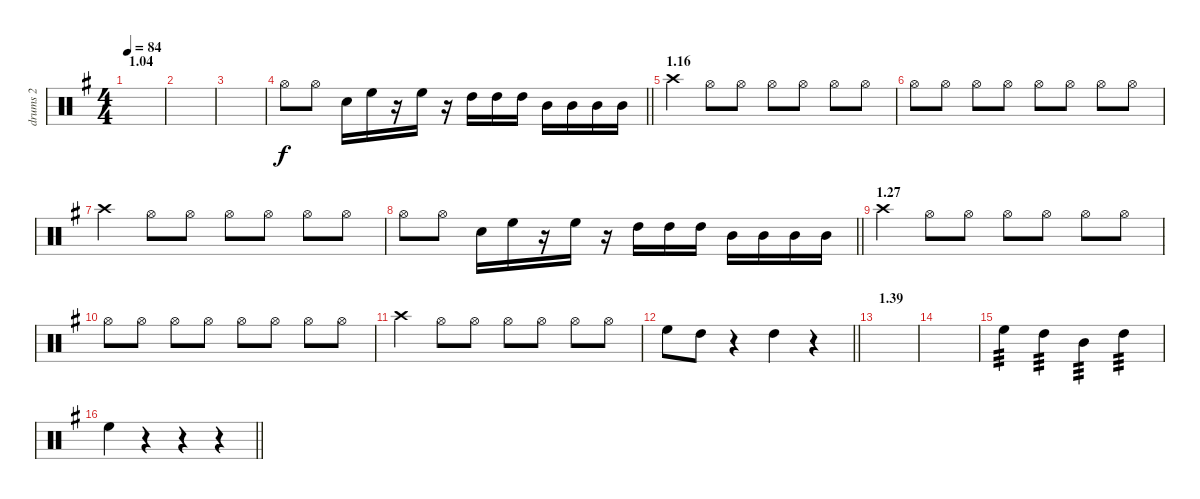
\track ("drums 2" "drums 2") {instrument percussion}
\staff {score}
\articulation defaults
\ts (4 4)
\section ("" "1.04")
\tempo 84
\clef neutral
\ks g
|
|
|
\barLineRight lightlight "Hi-Hat (open)".8 "Hi-Hat (open)".8 "Electric Snare (hit)".16 "High Floor Tom (hit)".16
r.16 "High Floor Tom (hit)".16 r.16 "High Tom (hit)".16 "High Tom (hit)".16 "High Tom (hit)".16 "Mid Tom (hit)".16 "Mid Tom (hit)".16 "Mid Tom (hit)".16 "Mid Tom (hit)".16 |
\section ("" "1.16")
"Crash high (hit)".4 "Hi-Hat (open)".8 "Hi-Hat (open)".8 "Hi-Hat (open)".8 "Hi-Hat (open)".8 "Hi-Hat (open)".8 "Hi-Hat (open)".8 |
"Hi-Hat (open)".8 "Hi-Hat (open)".8 "Hi-Hat (open)".8 "Hi-Hat (open)".8 "Hi-Hat (open)".8 "Hi-Hat (open)".8 "Hi-Hat (open)".8 "Hi-Hat (open)".8 |
"Crash high (hit)".4 "Hi-Hat (open)".8 "Hi-Hat (open)".8 "Hi-Hat (open)".8 "Hi-Hat (open)".8 "Hi-Hat (open)".8 "Hi-Hat (open)".8 |
\barLineRight lightlight "Hi-Hat (open)".8 "Hi-Hat (open)".8 "Electric Snare (hit)".16 "High Floor Tom (hit)".16
r.16 "High Floor Tom (hit)".16 r.16 "High Tom (hit)".16 "High Tom (hit)".16 "High Tom (hit)".16 "Mid Tom (hit)".16 "Mid Tom (hit)".16 "Mid Tom (hit)".16 "Mid Tom (hit)".16 |
\section ("" "1.27")
"Crash high (hit)".4 "Hi-Hat (open)".8 "Hi-Hat (open)".8 "Hi-Hat (open)".8 "Hi-Hat (open)".8 "Hi-Hat (open)".8 "Hi-Hat (open)".8 |
"Hi-Hat (open)".8 "Hi-Hat (open)".8 "Hi-Hat (open)".8 "Hi-Hat (open)".8 "Hi-Hat (open)".8 "Hi-Hat (open)".8 "Hi-Hat (open)".8 "Hi-Hat (open)".8 |
"Crash high (hit)".4 "Hi-Hat (open)".8 "Hi-Hat (open)".8 "Hi-Hat (open)".8 "Hi-Hat (open)".8 "Hi-Hat (open)".8 "Hi-Hat (open)".8 |
\barLineRight lightlight "High Floor Tom (hit)".8 "High Tom (hit)".8
r.4 "High Tom (hit)".4 r.4 |
\section ("" "1.39")
|
|
"High Floor Tom (hit)".4{tp 3} "High Tom (hit)".4{tp 3} "Mid Tom (hit)".4{tp 3} "High Tom (hit)".4{tp 3} |
\barLineRight lightlight "High Floor Tom (hit)".4
r.4 r.4 r.4
